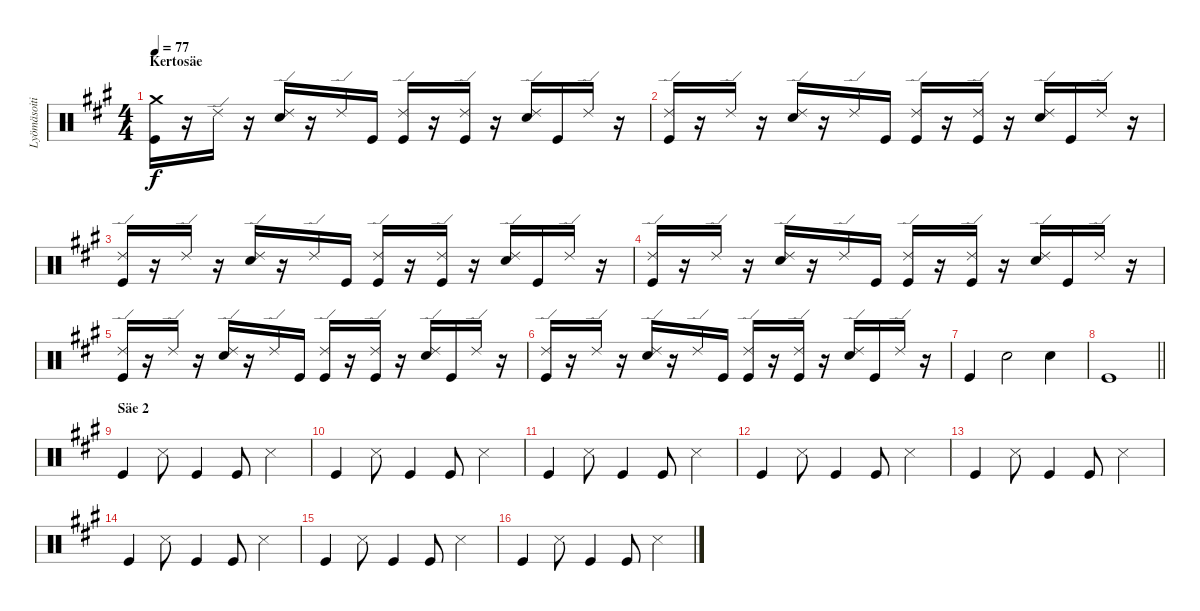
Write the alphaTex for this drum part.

\track ("Lyömäsoitin" "Lyömäsoiti") {instrument percussion}
\staff {score}
\articulation defaults
\ts (4 4)
\section ("" "Kertosäe")
\tempo 77
\clef neutral
\ks a
("Crash medium (hit)" "Kick (hit)").16{dy f} r.16 "Ride (edge) 2".16 r.16 ("Ride (edge) 2" "Snare (hit) 2").16 r.16 "Ride (edge) 2".16 "Kick (hit)".16 ("Ride (edge) 2" "Kick (hit)").16 r.16 ("Ride (edge) 2" "Kick (hit)").16 r.16 ("Ride (edge) 2" "Snare (hit) 2").16 "Kick (hit)".16 "Ride (edge) 2".16 r.16 |
("Ride (edge) 2" "Kick (hit)").16 r.16 "Ride (edge) 2".16 r.16 ("Ride (edge) 2" "Snare (hit) 2").16 r.16 "Ride (edge) 2".16 "Kick (hit)".16 ("Ride (edge) 2" "Kick (hit)").16 r.16 ("Ride (edge) 2" "Kick (hit)").16 r.16 ("Ride (edge) 2" "Snare (hit) 2").16 "Kick (hit)".16 "Ride (edge) 2".16 r.16 |
("Ride (edge) 2" "Kick (hit)").16 r.16 "Ride (edge) 2".16 r.16 ("Ride (edge) 2" "Snare (hit) 2").16 r.16 "Ride (edge) 2".16 "Kick (hit)".16 ("Ride (edge) 2" "Kick (hit)").16 r.16 ("Ride (edge) 2" "Kick (hit)").16 r.16 ("Ride (edge) 2" "Snare (hit) 2").16 "Kick (hit)".16 "Ride (edge) 2".16 r.16 |
("Ride (edge) 2" "Kick (hit)").16 r.16 "Ride (edge) 2".16 r.16 ("Ride (edge) 2" "Snare (hit) 2").16 r.16 "Ride (edge) 2".16 "Kick (hit)".16 ("Ride (edge) 2" "Kick (hit)").16 r.16 ("Ride (edge) 2" "Kick (hit)").16 r.16 ("Ride (edge) 2" "Snare (hit) 2").16 "Kick (hit)".16 "Ride (edge) 2".16 r.16 |
("Ride (edge) 2" "Kick (hit)").16 r.16 "Ride (edge) 2".16 r.16 ("Ride (edge) 2" "Snare (hit) 2").16 r.16 "Ride (edge) 2".16 "Kick (hit)".16 ("Ride (edge) 2" "Kick (hit)").16 r.16 ("Ride (edge) 2" "Kick (hit)").16 r.16 ("Ride (edge) 2" "Snare (hit) 2").16 "Kick (hit)".16 "Ride (edge) 2".16 r.16 |
("Ride (edge) 2" "Kick (hit)").16 r.16 "Ride (edge) 2".16 r.16 ("Ride (edge) 2" "Snare (hit) 2").16 r.16 "Ride (edge) 2".16 "Kick (hit)".16 ("Ride (edge) 2" "Kick (hit)").16 r.16 ("Ride (edge) 2" "Kick (hit)").16 r.16 ("Ride (edge) 2" "Snare (hit) 2").16 "Kick (hit)".16 "Ride (edge) 2".16 r.16 |
"Kick (hit)".4 "Snare (hit) 2".2 "Snare (hit) 2".4 |
\barLineRight lightlight "Kick (hit)".1
|
\section ("" "Säe 2")
"Kick (hit)".4 "Snare (side stick) 3".8 "Kick (hit)".4 "Kick (hit)".8 "Snare (side stick) 3".4 |
"Kick (hit)".4 "Snare (side stick) 3".8 "Kick (hit)".4 "Kick (hit)".8 "Snare (side stick) 3".4 |
"Kick (hit)".4 "Snare (side stick) 3".8 "Kick (hit)".4 "Kick (hit)".8 "Snare (side stick) 3".4 |
"Kick (hit)".4 "Snare (side stick) 3".8 "Kick (hit)".4 "Kick (hit)".8 "Snare (side stick) 3".4 |
"Kick (hit)".4 "Snare (side stick) 3".8 "Kick (hit)".4 "Kick (hit)".8 "Snare (side stick) 3".4 |
"Kick (hit)".4 "Snare (side stick) 3".8 "Kick (hit)".4 "Kick (hit)".8 "Snare (side stick) 3".4 |
"Kick (hit)".4 "Snare (side stick) 3".8 "Kick (hit)".4 "Kick (hit)".8 "Snare (side stick) 3".4 |
"Kick (hit)".4 "Snare (side stick) 3".8 "Kick (hit)".4 "Kick (hit)".8 "Snare (side stick) 3".4
